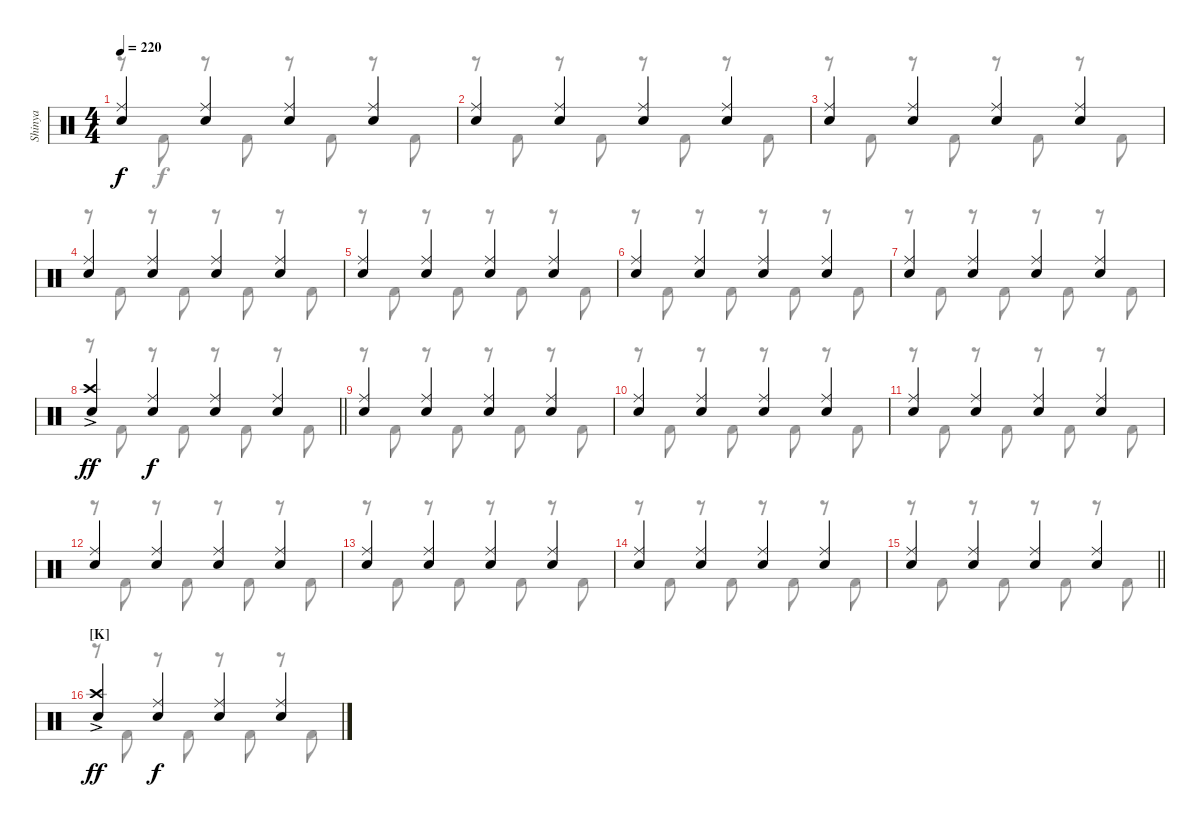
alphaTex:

\track ("Shinya" "Shinya") {instrument percussion}
\staff {score}
\articulation defaults
\voice
\ts (4 4)
\tempo 220
\clef neutral
\ks c
("Ride (middle)" "Snare (hit) 2").4{dy f} ("Ride (middle)" "Snare (hit) 2").4 ("Ride (middle)" "Snare (hit) 2").4 ("Ride (middle)" "Snare (hit) 2").4 |
("Ride (middle)" "Snare (hit) 2").4 ("Ride (middle)" "Snare (hit) 2").4 ("Ride (middle)" "Snare (hit) 2").4 ("Ride (middle)" "Snare (hit) 2").4 |
("Ride (middle)" "Snare (hit) 2").4 ("Ride (middle)" "Snare (hit) 2").4 ("Ride (middle)" "Snare (hit) 2").4 ("Ride (middle)" "Snare (hit) 2").4 |
("Ride (middle)" "Snare (hit) 2").4 ("Ride (middle)" "Snare (hit) 2").4 ("Ride (middle)" "Snare (hit) 2").4 ("Ride (middle)" "Snare (hit) 2").4 |
("Ride (middle)" "Snare (hit) 2").4 ("Ride (middle)" "Snare (hit) 2").4 ("Ride (middle)" "Snare (hit) 2").4 ("Ride (middle)" "Snare (hit) 2").4 |
("Ride (middle)" "Snare (hit) 2").4 ("Ride (middle)" "Snare (hit) 2").4 ("Ride (middle)" "Snare (hit) 2").4 ("Ride (middle)" "Snare (hit) 2").4 |
("Ride (middle)" "Snare (hit) 2").4 ("Ride (middle)" "Snare (hit) 2").4 ("Ride (middle)" "Snare (hit) 2").4 ("Ride (middle)" "Snare (hit) 2").4 |
\barLineRight lightlight
("Crash high (hit)"{ac} "Snare (hit) 2").4{dy ff} ("Ride (middle)" "Snare (hit) 2").4{dy f} ("Ride (middle)" "Snare (hit) 2").4 ("Ride (middle)" "Snare (hit) 2").4 |
("Ride (middle)" "Snare (hit) 2").4 ("Ride (middle)" "Snare (hit) 2").4 ("Ride (middle)" "Snare (hit) 2").4 ("Ride (middle)" "Snare (hit) 2").4 |
("Ride (middle)" "Snare (hit) 2").4 ("Ride (middle)" "Snare (hit) 2").4 ("Ride (middle)" "Snare (hit) 2").4 ("Ride (middle)" "Snare (hit) 2").4 |
("Ride (middle)" "Snare (hit) 2").4 ("Ride (middle)" "Snare (hit) 2").4 ("Ride (middle)" "Snare (hit) 2").4 ("Ride (middle)" "Snare (hit) 2").4 |
("Ride (middle)" "Snare (hit) 2").4 ("Ride (middle)" "Snare (hit) 2").4 ("Ride (middle)" "Snare (hit) 2").4 ("Ride (middle)" "Snare (hit) 2").4 |
("Ride (middle)" "Snare (hit) 2").4 ("Ride (middle)" "Snare (hit) 2").4 ("Ride (middle)" "Snare (hit) 2").4 ("Ride (middle)" "Snare (hit) 2").4 |
("Ride (middle)" "Snare (hit) 2").4 ("Ride (middle)" "Snare (hit) 2").4 ("Ride (middle)" "Snare (hit) 2").4 ("Ride (middle)" "Snare (hit) 2").4 |
\barLineRight lightlight
("Ride (middle)" "Snare (hit) 2").4 ("Ride (middle)" "Snare (hit) 2").4 ("Ride (middle)" "Snare (hit) 2").4 ("Ride (middle)" "Snare (hit) 2").4 |
\section ("" "[K]")
("Crash high (hit)"{ac} "Snare (hit) 2").4{dy ff} ("Ride (middle)" "Snare (hit) 2").4{dy f} ("Ride (middle)" "Snare (hit) 2").4 ("Ride (middle)" "Snare (hit) 2").4
\voice
\clef neutral
\ottava regular
\simile none
\ks c
r.8{dy f} "Kick (hit) 2".8 r.8 "Kick (hit) 2".8 r.8 "Kick (hit) 2".8 r.8 "Kick (hit) 2".8 |
r.8 "Kick (hit) 2".8 r.8 "Kick (hit) 2".8 r.8 "Kick (hit) 2".8 r.8 "Kick (hit) 2".8 |
r.8 "Kick (hit) 2".8 r.8 "Kick (hit) 2".8 r.8 "Kick (hit) 2".8 r.8 "Kick (hit) 2".8 |
r.8 "Kick (hit) 2".8 r.8 "Kick (hit) 2".8 r.8 "Kick (hit) 2".8 r.8 "Kick (hit) 2".8 |
r.8 "Kick (hit) 2".8 r.8 "Kick (hit) 2".8 r.8 "Kick (hit) 2".8 r.8 "Kick (hit) 2".8 |
r.8 "Kick (hit) 2".8 r.8 "Kick (hit) 2".8 r.8 "Kick (hit) 2".8 r.8 "Kick (hit) 2".8 |
r.8 "Kick (hit) 2".8 r.8 "Kick (hit) 2".8 r.8 "Kick (hit) 2".8 r.8 "Kick (hit) 2".8 |
\barLineRight lightlight
r.8 "Kick (hit) 2".8 r.8 "Kick (hit) 2".8 r.8 "Kick (hit) 2".8 r.8 "Kick (hit) 2".8 |
r.8 "Kick (hit) 2".8 r.8 "Kick (hit) 2".8 r.8 "Kick (hit) 2".8 r.8 "Kick (hit) 2".8 |
r.8 "Kick (hit) 2".8 r.8 "Kick (hit) 2".8 r.8 "Kick (hit) 2".8 r.8 "Kick (hit) 2".8 |
r.8 "Kick (hit) 2".8 r.8 "Kick (hit) 2".8 r.8 "Kick (hit) 2".8 r.8 "Kick (hit) 2".8 |
r.8 "Kick (hit) 2".8 r.8 "Kick (hit) 2".8 r.8 "Kick (hit) 2".8 r.8 "Kick (hit) 2".8 |
r.8 "Kick (hit) 2".8 r.8 "Kick (hit) 2".8 r.8 "Kick (hit) 2".8 r.8 "Kick (hit) 2".8 |
r.8 "Kick (hit) 2".8 r.8 "Kick (hit) 2".8 r.8 "Kick (hit) 2".8 r.8 "Kick (hit) 2".8 |
\barLineRight lightlight
r.8 "Kick (hit) 2".8 r.8 "Kick (hit) 2".8 r.8 "Kick (hit) 2".8 r.8 "Kick (hit) 2".8 |
r.8 "Kick (hit) 2".8 r.8 "Kick (hit) 2".8 r.8 "Kick (hit) 2".8 r.8 "Kick (hit) 2".8
